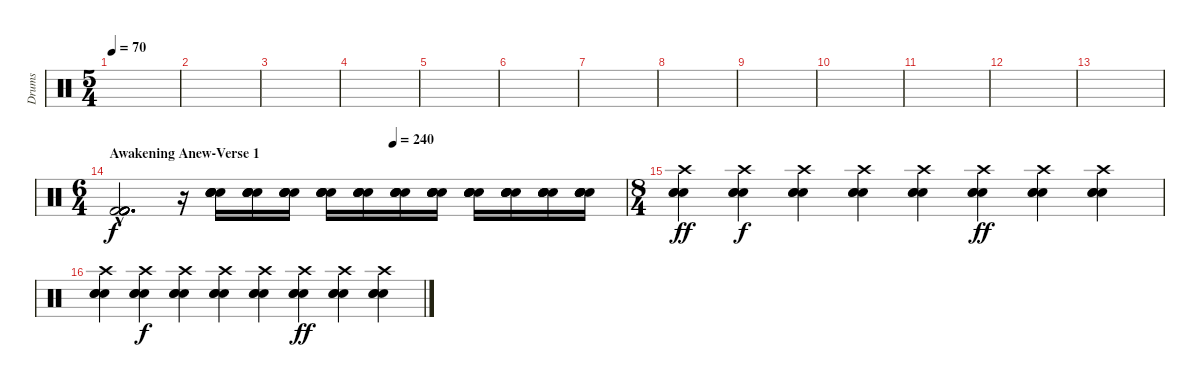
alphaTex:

\track ("Drums" "Drums") {instrument percussion}
\staff {score}
\articulation defaults
\ts (5 4)
\tempo 70
\clef neutral
\ks c
|
|
|
|
|
|
|
|
|
|
|
|
|
\ts (6 4)
\section ("" "Awakening Anew-Verse 1")
\tempo (240 0.5416666666666666)
("Kick (hit) 2"{hac} "Kick (hit) 2"{hac} "Kick (hit) 2"{hac} "Kick (hit) 2"{hac} "Kick (hit) 2"{hac} "Kick (hit) 2"{hac}).2{d} r.16 ("Snare (hit) 2" "Snare (hit) 2" "Snare (hit) 2" "Snare (hit) 2" "Snare (hit) 2").16 ("Snare (hit) 2" "Snare (hit) 2" "Snare (hit) 2" "Snare (hit) 2" "Snare (hit) 2").16 ("Snare (hit) 2" "Snare (hit) 2" "Snare (hit) 2" "Snare (hit) 2" "Snare (hit) 2").16 ("Snare (hit) 2" "Snare (hit) 2" "Snare (hit) 2" "Snare (hit) 2" "Snare (hit) 2").16 ("Snare (hit) 2" "Snare (hit) 2" "Snare (hit) 2" "Snare (hit) 2" "Snare (hit) 2").16 ("Snare (hit) 2" "Snare (hit) 2" "Snare (hit) 2" "Snare (hit) 2" "Snare (hit) 2").16 ("Snare (hit) 2" "Snare (hit) 2" "Snare (hit) 2" "Snare (hit) 2" "Snare (hit) 2").16 ("Snare (hit) 2" "Snare (hit) 2" "Snare (hit) 2" "Snare (hit) 2" "Snare (hit) 2").16 ("Snare (hit) 2" "Snare (hit) 2" "Snare (hit) 2" "Snare (hit) 2" "Snare (hit) 2").16 ("Snare (hit) 2" "Snare (hit) 2" "Snare (hit) 2" "Snare (hit) 2" "Snare (hit) 2").16 ("Snare (hit) 2" "Snare (hit) 2" "Snare (hit) 2" "Snare (hit) 2" "Snare (hit) 2").16 |
\ts (8 4)
("Crash high (hit)" "Snare (hit) 2" "Snare (hit) 2" "Snare (hit) 2").4{dy ff} ("Crash high (hit)" "Snare (hit) 2" "Snare (hit) 2" "Snare (hit) 2").4{dy f} ("Crash high (hit)" "Snare (hit) 2" "Snare (hit) 2" "Snare (hit) 2").4 ("Crash high (hit)" "Snare (hit) 2" "Snare (hit) 2" "Snare (hit) 2").4 ("Crash high (hit)" "Snare (hit) 2" "Snare (hit) 2" "Snare (hit) 2").4 ("Crash high (hit)" "Snare (hit) 2" "Snare (hit) 2" "Snare (hit) 2").4{dy ff} ("Crash high (hit)" "Snare (hit) 2" "Snare (hit) 2" "Snare (hit) 2").4 ("Crash high (hit)" "Snare (hit) 2" "Snare (hit) 2" "Snare (hit) 2").4 |
("Crash high (hit)" "Snare (hit) 2" "Snare (hit) 2" "Snare (hit) 2").4 ("Crash high (hit)" "Snare (hit) 2" "Snare (hit) 2" "Snare (hit) 2").4{dy f} ("Crash high (hit)" "Snare (hit) 2" "Snare (hit) 2" "Snare (hit) 2").4 ("Crash high (hit)" "Snare (hit) 2" "Snare (hit) 2" "Snare (hit) 2").4 ("Crash high (hit)" "Snare (hit) 2" "Snare (hit) 2" "Snare (hit) 2").4 ("Crash high (hit)" "Snare (hit) 2" "Snare (hit) 2" "Snare (hit) 2").4{dy ff} ("Crash high (hit)" "Snare (hit) 2" "Snare (hit) 2" "Snare (hit) 2").4 ("Crash high (hit)" "Snare (hit) 2" "Snare (hit) 2" "Snare (hit) 2").4
